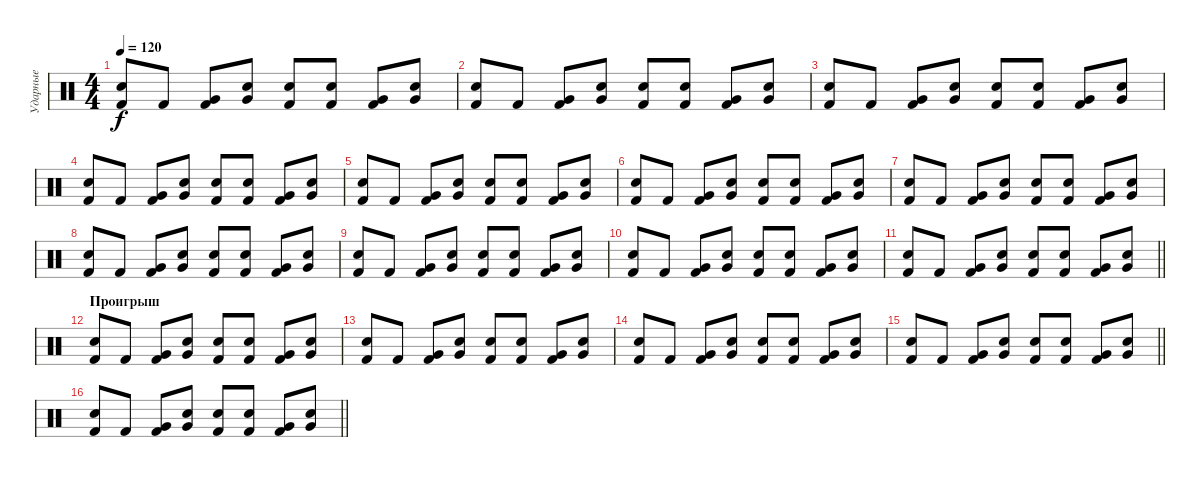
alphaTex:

\track ("Ударные" "Ударные") {instrument percussion}
\staff {score}
\articulation defaults
\ts (4 4)
\tempo 120
\clef neutral
\ks c
("Snare (hit) 2" "Kick (hit) 2").8{dy f} "Kick (hit) 2".8 ("Very Low Tom (hit)" "Kick (hit) 2").8 ("Very Low Tom (hit)" "Snare (hit) 2").8 ("Snare (hit) 2" "Kick (hit) 2").8 ("Snare (hit) 2" "Kick (hit) 2").8 ("Very Low Tom (hit)" "Kick (hit) 2").8 ("Very Low Tom (hit)" "Snare (hit) 2").8 |
("Snare (hit) 2" "Kick (hit) 2").8 "Kick (hit) 2".8 ("Very Low Tom (hit)" "Kick (hit) 2").8 ("Very Low Tom (hit)" "Snare (hit) 2").8 ("Snare (hit) 2" "Kick (hit) 2").8 ("Snare (hit) 2" "Kick (hit) 2").8 ("Very Low Tom (hit)" "Kick (hit) 2").8 ("Very Low Tom (hit)" "Snare (hit) 2").8 |
("Snare (hit) 2" "Kick (hit) 2").8 "Kick (hit) 2".8 ("Very Low Tom (hit)" "Kick (hit) 2").8 ("Very Low Tom (hit)" "Snare (hit) 2").8 ("Snare (hit) 2" "Kick (hit) 2").8 ("Snare (hit) 2" "Kick (hit) 2").8 ("Very Low Tom (hit)" "Kick (hit) 2").8 ("Very Low Tom (hit)" "Snare (hit) 2").8 |
("Snare (hit) 2" "Kick (hit) 2").8 "Kick (hit) 2".8 ("Very Low Tom (hit)" "Kick (hit) 2").8 ("Very Low Tom (hit)" "Snare (hit) 2").8 ("Snare (hit) 2" "Kick (hit) 2").8 ("Snare (hit) 2" "Kick (hit) 2").8 ("Very Low Tom (hit)" "Kick (hit) 2").8 ("Very Low Tom (hit)" "Snare (hit) 2").8 |
("Snare (hit) 2" "Kick (hit) 2").8 "Kick (hit) 2".8 ("Very Low Tom (hit)" "Kick (hit) 2").8 ("Very Low Tom (hit)" "Snare (hit) 2").8 ("Snare (hit) 2" "Kick (hit) 2").8 ("Snare (hit) 2" "Kick (hit) 2").8 ("Very Low Tom (hit)" "Kick (hit) 2").8 ("Very Low Tom (hit)" "Snare (hit) 2").8 |
("Snare (hit) 2" "Kick (hit) 2").8 "Kick (hit) 2".8 ("Very Low Tom (hit)" "Kick (hit) 2").8 ("Very Low Tom (hit)" "Snare (hit) 2").8 ("Snare (hit) 2" "Kick (hit) 2").8 ("Snare (hit) 2" "Kick (hit) 2").8 ("Very Low Tom (hit)" "Kick (hit) 2").8 ("Very Low Tom (hit)" "Snare (hit) 2").8 |
("Snare (hit) 2" "Kick (hit) 2").8 "Kick (hit) 2".8 ("Very Low Tom (hit)" "Kick (hit) 2").8 ("Very Low Tom (hit)" "Snare (hit) 2").8 ("Snare (hit) 2" "Kick (hit) 2").8 ("Snare (hit) 2" "Kick (hit) 2").8 ("Very Low Tom (hit)" "Kick (hit) 2").8 ("Very Low Tom (hit)" "Snare (hit) 2").8 |
("Snare (hit) 2" "Kick (hit) 2").8 "Kick (hit) 2".8 ("Very Low Tom (hit)" "Kick (hit) 2").8 ("Very Low Tom (hit)" "Snare (hit) 2").8 ("Snare (hit) 2" "Kick (hit) 2").8 ("Snare (hit) 2" "Kick (hit) 2").8 ("Very Low Tom (hit)" "Kick (hit) 2").8 ("Very Low Tom (hit)" "Snare (hit) 2").8 |
("Snare (hit) 2" "Kick (hit) 2").8 "Kick (hit) 2".8 ("Very Low Tom (hit)" "Kick (hit) 2").8 ("Very Low Tom (hit)" "Snare (hit) 2").8 ("Snare (hit) 2" "Kick (hit) 2").8 ("Snare (hit) 2" "Kick (hit) 2").8 ("Very Low Tom (hit)" "Kick (hit) 2").8 ("Very Low Tom (hit)" "Snare (hit) 2").8 |
("Snare (hit) 2" "Kick (hit) 2").8 "Kick (hit) 2".8 ("Very Low Tom (hit)" "Kick (hit) 2").8 ("Very Low Tom (hit)" "Snare (hit) 2").8 ("Snare (hit) 2" "Kick (hit) 2").8 ("Snare (hit) 2" "Kick (hit) 2").8 ("Very Low Tom (hit)" "Kick (hit) 2").8 ("Very Low Tom (hit)" "Snare (hit) 2").8 |
\barLineRight lightlight
("Snare (hit) 2" "Kick (hit) 2").8 "Kick (hit) 2".8 ("Very Low Tom (hit)" "Kick (hit) 2").8 ("Very Low Tom (hit)" "Snare (hit) 2").8 ("Snare (hit) 2" "Kick (hit) 2").8 ("Snare (hit) 2" "Kick (hit) 2").8 ("Very Low Tom (hit)" "Kick (hit) 2").8 ("Very Low Tom (hit)" "Snare (hit) 2").8 |
\section ("" "Проигрыш")
("Snare (hit) 2" "Kick (hit) 2").8 "Kick (hit) 2".8 ("Very Low Tom (hit)" "Kick (hit) 2").8 ("Very Low Tom (hit)" "Snare (hit) 2").8 ("Snare (hit) 2" "Kick (hit) 2").8 ("Snare (hit) 2" "Kick (hit) 2").8 ("Very Low Tom (hit)" "Kick (hit) 2").8 ("Very Low Tom (hit)" "Snare (hit) 2").8 |
("Snare (hit) 2" "Kick (hit) 2").8 "Kick (hit) 2".8 ("Very Low Tom (hit)" "Kick (hit) 2").8 ("Very Low Tom (hit)" "Snare (hit) 2").8 ("Snare (hit) 2" "Kick (hit) 2").8 ("Snare (hit) 2" "Kick (hit) 2").8 ("Very Low Tom (hit)" "Kick (hit) 2").8 ("Very Low Tom (hit)" "Snare (hit) 2").8 |
("Snare (hit) 2" "Kick (hit) 2").8 "Kick (hit) 2".8 ("Very Low Tom (hit)" "Kick (hit) 2").8 ("Very Low Tom (hit)" "Snare (hit) 2").8 ("Snare (hit) 2" "Kick (hit) 2").8 ("Snare (hit) 2" "Kick (hit) 2").8 ("Very Low Tom (hit)" "Kick (hit) 2").8 ("Very Low Tom (hit)" "Snare (hit) 2").8 |
\barLineRight lightlight
("Snare (hit) 2" "Kick (hit) 2").8 "Kick (hit) 2".8 ("Very Low Tom (hit)" "Kick (hit) 2").8 ("Very Low Tom (hit)" "Snare (hit) 2").8 ("Snare (hit) 2" "Kick (hit) 2").8 ("Snare (hit) 2" "Kick (hit) 2").8 ("Very Low Tom (hit)" "Kick (hit) 2").8 ("Very Low Tom (hit)" "Snare (hit) 2").8 |
\barLineRight lightlight
("Snare (hit) 2" "Kick (hit) 2").8 "Kick (hit) 2".8 ("Very Low Tom (hit)" "Kick (hit) 2").8 ("Very Low Tom (hit)" "Snare (hit) 2").8 ("Snare (hit) 2" "Kick (hit) 2").8 ("Snare (hit) 2" "Kick (hit) 2").8 ("Very Low Tom (hit)" "Kick (hit) 2").8 ("Very Low Tom (hit)" "Snare (hit) 2").8
